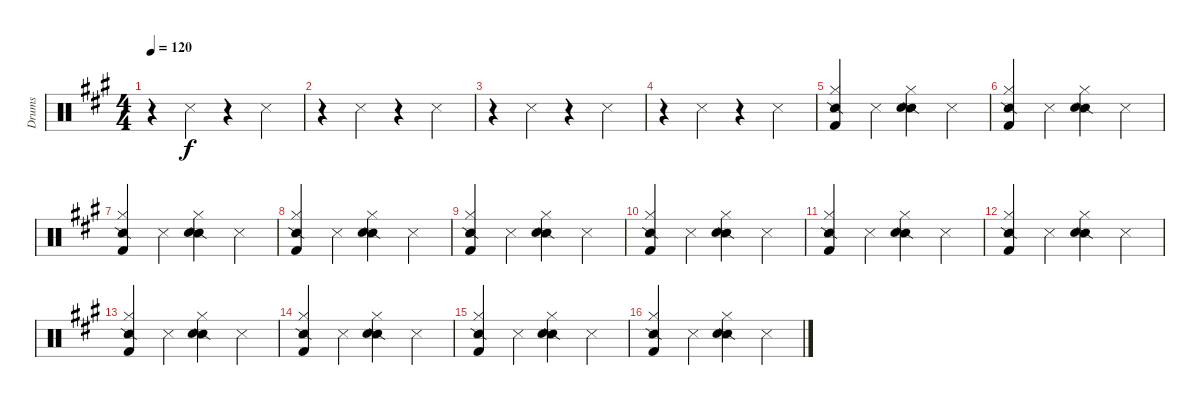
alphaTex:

\track ("Drums" "Drums") {instrument percussion}
\staff {score}
\articulation defaults
\ts (4 4)
\tempo 120
\clef neutral
\ks a
r.4{dy f} "Snare (side stick) 3".4 r.4 "Snare (side stick) 3".4 |
r.4 "Snare (side stick) 3".4 r.4 "Snare (side stick) 3".4 |
r.4 "Snare (side stick) 3".4 r.4 "Snare (side stick) 3".4 |
r.4 "Snare (side stick) 3".4 r.4 "Snare (side stick) 3".4 |
("Snare (side stick) 2" "Hi-Hat (closed)" "Kick (hit) 2").4 "Snare (side stick) 3".4 ("Snare (side stick) 2" "Hi-Hat (closed)" "Electric Snare (hit)").4 "Snare (side stick) 3".4 |
("Snare (side stick) 2" "Hi-Hat (closed)" "Kick (hit) 2").4 "Snare (side stick) 3".4 ("Snare (side stick) 2" "Hi-Hat (closed)" "Electric Snare (hit)").4 "Snare (side stick) 3".4 |
("Snare (side stick) 2" "Hi-Hat (closed)" "Kick (hit) 2").4 "Snare (side stick) 3".4 ("Snare (side stick) 2" "Hi-Hat (closed)" "Electric Snare (hit)").4 "Snare (side stick) 3".4 |
("Snare (side stick) 2" "Hi-Hat (closed)" "Kick (hit) 2").4 "Snare (side stick) 3".4 ("Snare (side stick) 2" "Hi-Hat (closed)" "Electric Snare (hit)").4 "Snare (side stick) 3".4 |
("Snare (side stick) 2" "Hi-Hat (closed)" "Kick (hit) 2").4 "Snare (side stick) 3".4 ("Snare (side stick) 2" "Hi-Hat (closed)" "Electric Snare (hit)").4 "Snare (side stick) 3".4 |
("Snare (side stick) 2" "Hi-Hat (closed)" "Kick (hit) 2").4 "Snare (side stick) 3".4 ("Snare (side stick) 2" "Hi-Hat (closed)" "Electric Snare (hit)").4 "Snare (side stick) 3".4 |
("Snare (side stick) 2" "Hi-Hat (closed)" "Kick (hit) 2").4 "Snare (side stick) 3".4 ("Snare (side stick) 2" "Hi-Hat (closed)" "Electric Snare (hit)").4 "Snare (side stick) 3".4 |
("Snare (side stick) 2" "Hi-Hat (closed)" "Kick (hit) 2").4 "Snare (side stick) 3".4 ("Snare (side stick) 2" "Hi-Hat (closed)" "Electric Snare (hit)").4 "Snare (side stick) 3".4 |
("Snare (side stick) 2" "Hi-Hat (closed)" "Kick (hit) 2").4 "Snare (side stick) 3".4 ("Snare (side stick) 2" "Hi-Hat (closed)" "Electric Snare (hit)").4 "Snare (side stick) 3".4 |
("Snare (side stick) 2" "Hi-Hat (closed)" "Kick (hit) 2").4 "Snare (side stick) 3".4 ("Snare (side stick) 2" "Hi-Hat (closed)" "Electric Snare (hit)").4 "Snare (side stick) 3".4 |
("Snare (side stick) 2" "Hi-Hat (closed)" "Kick (hit) 2").4 "Snare (side stick) 3".4 ("Snare (side stick) 2" "Hi-Hat (closed)" "Electric Snare (hit)").4 "Snare (side stick) 3".4 |
("Snare (side stick) 2" "Hi-Hat (closed)" "Kick (hit) 2").4 "Snare (side stick) 3".4 ("Snare (side stick) 2" "Hi-Hat (closed)" "Electric Snare (hit)").4 "Snare (side stick) 3".4
